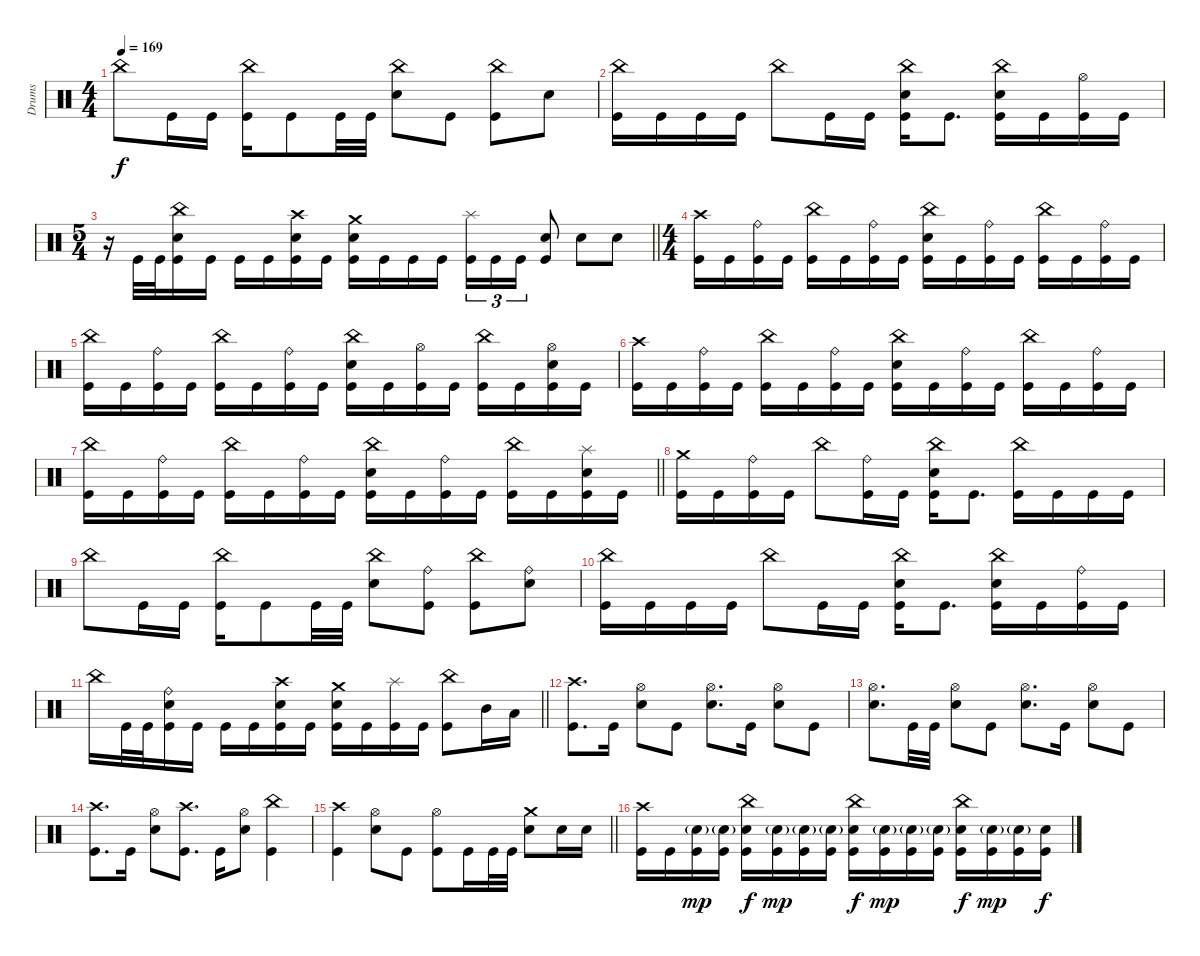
\track ("Drums" "Drums") {instrument percussion}
\staff
\articulation defaults
\ts (4 4)
\tempo 169
\clef neutral
\ks c "China (hit)".8{dy f} "Kick (hit)".16 "Kick (hit)".16
("China (hit)" "Kick (hit)").16 "Kick (hit)".8 "Kick (hit)".32 "Kick (hit)".32 ("China (hit)" "Electric Snare (hit)").8 "Kick (hit)".8 ("China (hit)" "Kick (hit)").8 "Electric Snare (hit)".8 |
("China (hit)" "Kick (hit)").16 "Kick (hit)".16 "Kick (hit)".16 "Kick (hit)".16 "China (hit)".8 "Kick (hit)".16 "Kick (hit)".16 ("China (hit)" "Electric Snare (hit)" "Kick (hit)").16 "Kick (hit)".8{d} ("China (hit)" "Electric Snare (hit)" "Kick (hit)").16 "Kick (hit)".16 ("Hi-Hat (open)" "Kick (hit)").16 "Kick (hit)".16 |
\ts (5 4)
\barLineRight lightlight
r.16 "Kick (hit)".32 "Kick (hit)".32 ("China (hit)" "Electric Snare (hit)" "Kick (hit)").16 "Kick (hit)".16 "Kick (hit)".16 "Kick (hit)".16 ("Crash high (hit)" "Electric Snare (hit)" "Kick (hit)").16 "Kick (hit)".16 ("Crash medium (hit)" "Electric Snare (hit)" "Kick (hit)").16 "Kick (hit)".16 "Kick (hit)".16 "Kick (hit)".16 ("Splash (hit)" "Kick (hit)").16{tu (3 2)} "Kick (hit)".16{tu (3 2)} "Kick (hit)".16{tu (3 2)} ("Electric Snare (hit)" "Kick (hit)").8 "Electric Snare (hit)".8 "Electric Snare (hit)".8 |
\ts (4 4)
("Crash high (hit)" "Kick (hit)").16 "Kick (hit)".16 ("Ride (bell)" "Kick (hit)").16 "Kick (hit)".16 ("China (hit)" "Kick (hit)").16 "Kick (hit)".16 ("Ride (bell)" "Kick (hit)").16 "Kick (hit)".16 ("China (hit)" "Electric Snare (hit)" "Kick (hit)").16 "Kick (hit)".16 ("Ride (bell)" "Kick (hit)").16 "Kick (hit)".16 ("China (hit)" "Kick (hit)").16 "Kick (hit)".16 ("Ride (bell)" "Kick (hit)").16 "Kick (hit)".16 |
("China (hit)" "Kick (hit)").16 "Kick (hit)".16 ("Ride (bell)" "Kick (hit)").16 "Kick (hit)".16 ("China (hit)" "Kick (hit)").16 "Kick (hit)".16 ("Ride (bell)" "Kick (hit)").16 "Kick (hit)".16 ("China (hit)" "Electric Snare (hit)" "Kick (hit)").16 "Kick (hit)".16 ("Hi-Hat (open)" "Kick (hit)").16 "Kick (hit)".16 ("China (hit)" "Kick (hit)").16 "Kick (hit)".16 ("Hi-Hat (open)" "Electric Snare (hit)" "Kick (hit)").16 "Kick (hit)".16 |
("Crash high (hit)" "Kick (hit)").16 "Kick (hit)".16 ("Ride (bell)" "Kick (hit)").16 "Kick (hit)".16 ("China (hit)" "Kick (hit)").16 "Kick (hit)".16 ("Ride (bell)" "Kick (hit)").16 "Kick (hit)".16 ("China (hit)" "Electric Snare (hit)" "Kick (hit)").16 "Kick (hit)".16 ("Ride (bell)" "Kick (hit)").16 "Kick (hit)".16 ("China (hit)" "Kick (hit)").16 "Kick (hit)".16 ("Ride (bell)" "Kick (hit)").16 "Kick (hit)".16 |
\barLineRight lightlight
("China (hit)" "Kick (hit)").16 "Kick (hit)".16 ("Ride (bell)" "Kick (hit)").16 "Kick (hit)".16 ("China (hit)" "Kick (hit)").16 "Kick (hit)".16 ("Ride (bell)" "Kick (hit)").16 "Kick (hit)".16 ("China (hit)" "Electric Snare (hit)" "Kick (hit)").16 "Kick (hit)".16 ("Ride (bell)" "Kick (hit)").16 "Kick (hit)".16 ("China (hit)" "Kick (hit)").16 "Kick (hit)".16 ("Splash (hit)" "Electric Snare (hit)" "Kick (hit)").16 "Kick (hit)".16 |
("Crash medium (hit)" "Kick (hit)").16 "Kick (hit)".16 ("Ride (bell)" "Kick (hit)").16 "Kick (hit)".16 "China (hit)".8 ("Ride (bell)" "Kick (hit)").16 "Kick (hit)".16 ("China (hit)" "Electric Snare (hit)" "Kick (hit)").16 "Kick (hit)".8{d} ("China (hit)" "Kick (hit)").16 "Kick (hit)".16 "Kick (hit)".16 "Kick (hit)".16 |
"China (hit)".8 "Kick (hit)".16 "Kick (hit)".16 ("China (hit)" "Kick (hit)").16 "Kick (hit)".8 "Kick (hit)".32 "Kick (hit)".32 ("China (hit)" "Electric Snare (hit)").8 ("Ride (bell)" "Kick (hit)").8 ("China (hit)" "Kick (hit)").8 ("Ride (bell)" "Electric Snare (hit)").8 |
("China (hit)" "Kick (hit)").16 "Kick (hit)".16 "Kick (hit)".16 "Kick (hit)".16 "China (hit)".8 "Kick (hit)".16 "Kick (hit)".16 ("China (hit)" "Electric Snare (hit)" "Kick (hit)").16 "Kick (hit)".8{d} ("China (hit)" "Electric Snare (hit)" "Kick (hit)").16 "Kick (hit)".16 ("Ride (bell)" "Kick (hit)").16 "Kick (hit)".16 |
\barLineRight lightlight "China (hit)".16 "Kick (hit)".32 "Kick (hit)".32
("Ride (bell)" "Electric Snare (hit)" "Kick (hit)").16 "Kick (hit)".16 "Kick (hit)".16 "Kick (hit)".16 ("Crash high (hit)" "Electric Snare (hit)" "Kick (hit)").16 "Kick (hit)".16 ("Crash medium (hit)" "Electric Snare (hit)" "Kick (hit)").16 "Kick (hit)".16 ("Splash (hit)" "Kick (hit)").16 "Kick (hit)".16 ("China (hit)" "Kick (hit)").8 "Mid Tom (hit)".16 "Low Tom (hit)".16 |
\section ("" "")
("Crash high (hit)" "Kick (hit)").8{d} "Kick (hit)".16 ("Hi-Hat (open)" "Electric Snare (hit)").8 "Kick (hit)".8 ("Hi-Hat (open)" "Electric Snare (hit)").8{d} "Kick (hit)".16 ("Hi-Hat (open)" "Electric Snare (hit)").8 "Kick (hit)".8 |
("Hi-Hat (open)" "Electric Snare (hit)").8{d} "Kick (hit)".32 "Kick (hit)".32 ("Hi-Hat (open)" "Electric Snare (hit)").8 "Kick (hit)".8 ("Hi-Hat (open)" "Electric Snare (hit)").8{d} "Kick (hit)".16 ("Hi-Hat (open)" "Electric Snare (hit)").8 "Kick (hit)".8 |
("Crash high (hit)" "Kick (hit)").8{d} "Kick (hit)".16 ("Hi-Hat (open)" "Electric Snare (hit)").8 ("Crash high (hit)" "Kick (hit)").8{d} "Kick (hit)".16 ("Hi-Hat (open)" "Electric Snare (hit)").8 ("China (hit)" "Kick (hit)").4 |
\barLineRight lightlight
("Crash high (hit)" "Kick (hit)").4 ("Hi-Hat (open)" "Electric Snare (hit)").8 "Kick (hit)".8 ("Hi-Hat (open)" "Kick (hit)").8 "Kick (hit)".16 "Kick (hit)".32 "Kick (hit)".32 ("Crash medium (hit)" "Electric Snare (hit)").8 "Electric Snare (hit)".16 "Electric Snare (hit)".16 |
("Crash high (hit)" "Kick (hit)").16 "Kick (hit)".16 ("Electric Snare (hit)"{g} "Kick (hit)").16{dy mp} ("Electric Snare (hit)"{g} "Kick (hit)").16 ("China (hit)" "Electric Snare (hit)" "Kick (hit)").16{dy f} ("Electric Snare (hit)"{g} "Kick (hit)").16{dy mp} ("Electric Snare (hit)"{g} "Kick (hit)").16 ("Electric Snare (hit)"{g} "Kick (hit)").16 ("China (hit)" "Electric Snare (hit)" "Kick (hit)").16{dy f} ("Electric Snare (hit)"{g} "Kick (hit)").16{dy mp} ("Electric Snare (hit)"{g} "Kick (hit)").16 ("Electric Snare (hit)"{g} "Kick (hit)").16 ("China (hit)" "Electric Snare (hit)" "Kick (hit)").16{dy f} ("Electric Snare (hit)"{g} "Kick (hit)").16{dy mp} ("Electric Snare (hit)"{g} "Kick (hit)").16 ("Electric Snare (hit)" "Kick (hit)").16{dy f}
